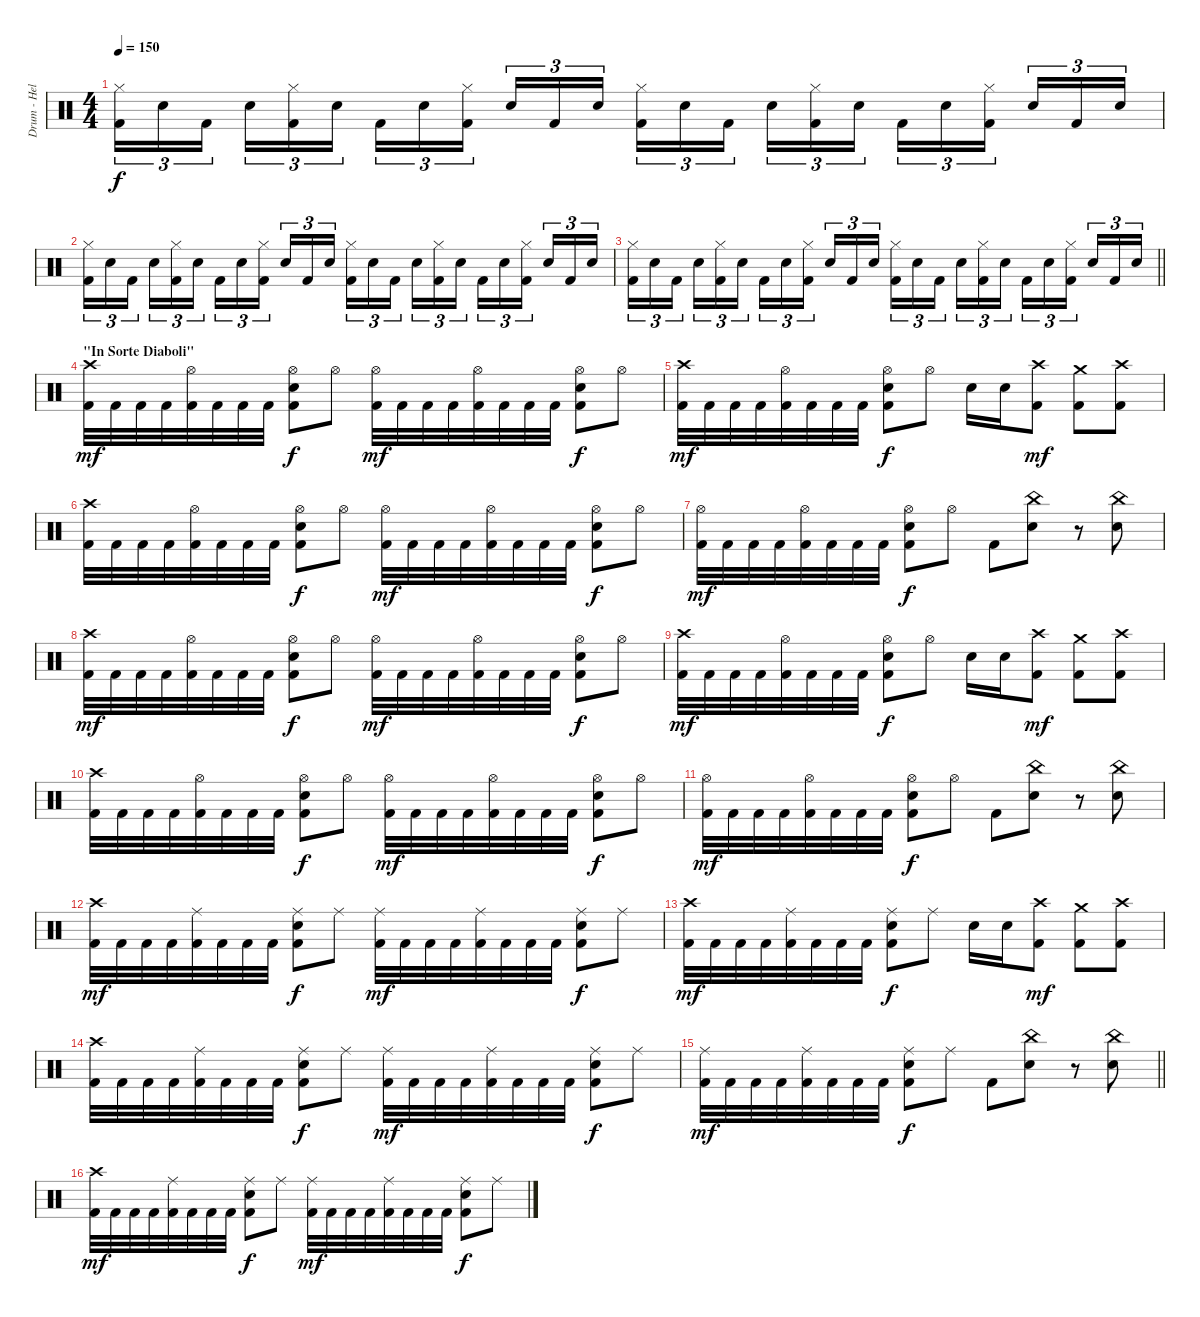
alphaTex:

\track ("Drum - Hellhammer" "Drum - Hel") {instrument percussion}
\staff {score}
\articulation defaults
\ts (4 4)
\tempo 150
\clef neutral
\ks c
("Hi-Hat (closed)" "Kick (hit) 2").16{tu (3 2) dy f} "Electric Snare (hit)".16{tu (3 2)} "Kick (hit) 2".16{tu (3 2)} "Electric Snare (hit)".16{tu (3 2)} ("Hi-Hat (closed)" "Kick (hit) 2").16{tu (3 2)} "Electric Snare (hit)".16{tu (3 2)} "Kick (hit) 2".16{tu (3 2)} "Electric Snare (hit)".16{tu (3 2)} ("Hi-Hat (closed)" "Kick (hit) 2").16{tu (3 2)} "Electric Snare (hit)".16{tu (3 2)} "Kick (hit) 2".16{tu (3 2)} "Electric Snare (hit)".16{tu (3 2)} ("Hi-Hat (closed)" "Kick (hit) 2").16{tu (3 2)} "Electric Snare (hit)".16{tu (3 2)} "Kick (hit) 2".16{tu (3 2)} "Electric Snare (hit)".16{tu (3 2)} ("Hi-Hat (closed)" "Kick (hit) 2").16{tu (3 2)} "Electric Snare (hit)".16{tu (3 2)} "Kick (hit) 2".16{tu (3 2)} "Electric Snare (hit)".16{tu (3 2)} ("Hi-Hat (closed)" "Kick (hit) 2").16{tu (3 2)} "Electric Snare (hit)".16{tu (3 2)} "Kick (hit) 2".16{tu (3 2)} "Electric Snare (hit)".16{tu (3 2)} |
("Hi-Hat (closed)" "Kick (hit) 2").16{tu (3 2)} "Electric Snare (hit)".16{tu (3 2)} "Kick (hit) 2".16{tu (3 2)} "Electric Snare (hit)".16{tu (3 2)} ("Hi-Hat (closed)" "Kick (hit) 2").16{tu (3 2)} "Electric Snare (hit)".16{tu (3 2)} "Kick (hit) 2".16{tu (3 2)} "Electric Snare (hit)".16{tu (3 2)} ("Hi-Hat (closed)" "Kick (hit) 2").16{tu (3 2)} "Electric Snare (hit)".16{tu (3 2)} "Kick (hit) 2".16{tu (3 2)} "Electric Snare (hit)".16{tu (3 2)} ("Hi-Hat (closed)" "Kick (hit) 2").16{tu (3 2)} "Electric Snare (hit)".16{tu (3 2)} "Kick (hit) 2".16{tu (3 2)} "Electric Snare (hit)".16{tu (3 2)} ("Hi-Hat (closed)" "Kick (hit) 2").16{tu (3 2)} "Electric Snare (hit)".16{tu (3 2)} "Kick (hit) 2".16{tu (3 2)} "Electric Snare (hit)".16{tu (3 2)} ("Hi-Hat (closed)" "Kick (hit) 2").16{tu (3 2)} "Electric Snare (hit)".16{tu (3 2)} "Kick (hit) 2".16{tu (3 2)} "Electric Snare (hit)".16{tu (3 2)} |
\barLineRight lightlight
("Hi-Hat (closed)" "Kick (hit) 2").16{tu (3 2)} "Electric Snare (hit)".16{tu (3 2)} "Kick (hit) 2".16{tu (3 2)} "Electric Snare (hit)".16{tu (3 2)} ("Hi-Hat (closed)" "Kick (hit) 2").16{tu (3 2)} "Electric Snare (hit)".16{tu (3 2)} "Kick (hit) 2".16{tu (3 2)} "Electric Snare (hit)".16{tu (3 2)} ("Hi-Hat (closed)" "Kick (hit) 2").16{tu (3 2)} "Electric Snare (hit)".16{tu (3 2)} "Kick (hit) 2".16{tu (3 2)} "Electric Snare (hit)".16{tu (3 2)} ("Hi-Hat (closed)" "Kick (hit) 2").16{tu (3 2)} "Electric Snare (hit)".16{tu (3 2)} "Kick (hit) 2".16{tu (3 2)} "Electric Snare (hit)".16{tu (3 2)} ("Hi-Hat (closed)" "Kick (hit) 2").16{tu (3 2)} "Electric Snare (hit)".16{tu (3 2)} "Kick (hit) 2".16{tu (3 2)} "Electric Snare (hit)".16{tu (3 2)} ("Hi-Hat (closed)" "Kick (hit) 2").16{tu (3 2)} "Electric Snare (hit)".16{tu (3 2)} "Kick (hit) 2".16{tu (3 2)} "Electric Snare (hit)".16{tu (3 2)} |
\section ("" "\"In Sorte Diaboli\"")
("Crash high (hit)" "Kick (hit) 2").32{dy mf} "Kick (hit) 2".32 "Kick (hit) 2".32 "Kick (hit) 2".32 ("Hi-Hat (open)" "Kick (hit) 2").32 "Kick (hit) 2".32 "Kick (hit) 2".32 "Kick (hit) 2".32 ("Hi-Hat (open)" "Electric Snare (hit)" "Kick (hit) 2").8{dy f} "Hi-Hat (open)".8 ("Hi-Hat (open)" "Kick (hit) 2").32{dy mf} "Kick (hit) 2".32 "Kick (hit) 2".32 "Kick (hit) 2".32 ("Hi-Hat (open)" "Kick (hit) 2").32 "Kick (hit) 2".32 "Kick (hit) 2".32 "Kick (hit) 2".32 ("Hi-Hat (open)" "Electric Snare (hit)" "Kick (hit) 2").8{dy f} "Hi-Hat (open)".8 |
("Crash high (hit)" "Kick (hit) 2").32{dy mf} "Kick (hit) 2".32 "Kick (hit) 2".32 "Kick (hit) 2".32 ("Hi-Hat (open)" "Kick (hit) 2").32 "Kick (hit) 2".32 "Kick (hit) 2".32 "Kick (hit) 2".32 ("Hi-Hat (open)" "Electric Snare (hit)" "Kick (hit) 2").8{dy f} "Hi-Hat (open)".8 "Electric Snare (hit)".16 "Electric Snare (hit)".16 ("Crash high (hit)" "Kick (hit) 2").8{dy mf} ("Crash medium (hit)" "Kick (hit) 2").8 ("Crash high (hit)" "Kick (hit) 2").8 |
("Crash high (hit)" "Kick (hit) 2").32 "Kick (hit) 2".32 "Kick (hit) 2".32 "Kick (hit) 2".32 ("Hi-Hat (open)" "Kick (hit) 2").32 "Kick (hit) 2".32 "Kick (hit) 2".32 "Kick (hit) 2".32 ("Hi-Hat (open)" "Electric Snare (hit)" "Kick (hit) 2").8{dy f} "Hi-Hat (open)".8 ("Hi-Hat (open)" "Kick (hit) 2").32{dy mf} "Kick (hit) 2".32 "Kick (hit) 2".32 "Kick (hit) 2".32 ("Hi-Hat (open)" "Kick (hit) 2").32 "Kick (hit) 2".32 "Kick (hit) 2".32 "Kick (hit) 2".32 ("Hi-Hat (open)" "Electric Snare (hit)" "Kick (hit) 2").8{dy f} "Hi-Hat (open)".8 |
("Hi-Hat (open)" "Kick (hit) 2").32{dy mf} "Kick (hit) 2".32 "Kick (hit) 2".32 "Kick (hit) 2".32 ("Hi-Hat (open)" "Kick (hit) 2").32 "Kick (hit) 2".32 "Kick (hit) 2".32 "Kick (hit) 2".32 ("Hi-Hat (open)" "Electric Snare (hit)" "Kick (hit) 2").8{dy f} "Hi-Hat (open)".8 "Kick (hit) 2".8 ("China (hit)" "Electric Snare (hit)").8 r.8 ("China (hit)" "Electric Snare (hit)").8 |
("Crash high (hit)" "Kick (hit) 2").32{dy mf} "Kick (hit) 2".32 "Kick (hit) 2".32 "Kick (hit) 2".32 ("Hi-Hat (open)" "Kick (hit) 2").32 "Kick (hit) 2".32 "Kick (hit) 2".32 "Kick (hit) 2".32 ("Hi-Hat (open)" "Electric Snare (hit)" "Kick (hit) 2").8{dy f} "Hi-Hat (open)".8 ("Hi-Hat (open)" "Kick (hit) 2").32{dy mf} "Kick (hit) 2".32 "Kick (hit) 2".32 "Kick (hit) 2".32 ("Hi-Hat (open)" "Kick (hit) 2").32 "Kick (hit) 2".32 "Kick (hit) 2".32 "Kick (hit) 2".32 ("Hi-Hat (open)" "Electric Snare (hit)" "Kick (hit) 2").8{dy f} "Hi-Hat (open)".8 |
("Crash high (hit)" "Kick (hit) 2").32{dy mf} "Kick (hit) 2".32 "Kick (hit) 2".32 "Kick (hit) 2".32 ("Hi-Hat (open)" "Kick (hit) 2").32 "Kick (hit) 2".32 "Kick (hit) 2".32 "Kick (hit) 2".32 ("Hi-Hat (open)" "Electric Snare (hit)" "Kick (hit) 2").8{dy f} "Hi-Hat (open)".8 "Electric Snare (hit)".16 "Electric Snare (hit)".16 ("Crash high (hit)" "Kick (hit) 2").8{dy mf} ("Crash medium (hit)" "Kick (hit) 2").8 ("Crash high (hit)" "Kick (hit) 2").8 |
("Crash high (hit)" "Kick (hit) 2").32 "Kick (hit) 2".32 "Kick (hit) 2".32 "Kick (hit) 2".32 ("Hi-Hat (open)" "Kick (hit) 2").32 "Kick (hit) 2".32 "Kick (hit) 2".32 "Kick (hit) 2".32 ("Hi-Hat (open)" "Electric Snare (hit)" "Kick (hit) 2").8{dy f} "Hi-Hat (open)".8 ("Hi-Hat (open)" "Kick (hit) 2").32{dy mf} "Kick (hit) 2".32 "Kick (hit) 2".32 "Kick (hit) 2".32 ("Hi-Hat (open)" "Kick (hit) 2").32 "Kick (hit) 2".32 "Kick (hit) 2".32 "Kick (hit) 2".32 ("Hi-Hat (open)" "Electric Snare (hit)" "Kick (hit) 2").8{dy f} "Hi-Hat (open)".8 |
("Hi-Hat (open)" "Kick (hit) 2").32{dy mf} "Kick (hit) 2".32 "Kick (hit) 2".32 "Kick (hit) 2".32 ("Hi-Hat (open)" "Kick (hit) 2").32 "Kick (hit) 2".32 "Kick (hit) 2".32 "Kick (hit) 2".32 ("Hi-Hat (open)" "Electric Snare (hit)" "Kick (hit) 2").8{dy f} "Hi-Hat (open)".8 "Kick (hit) 2".8 ("China (hit)" "Electric Snare (hit)").8 r.8 ("China (hit)" "Electric Snare (hit)").8 |
("Crash high (hit)" "Kick (hit) 2").32{dy mf} "Kick (hit) 2".32 "Kick (hit) 2".32 "Kick (hit) 2".32 ("Ride (middle)" "Kick (hit) 2").32 "Kick (hit) 2".32 "Kick (hit) 2".32 "Kick (hit) 2".32 ("Ride (middle)" "Electric Snare (hit)" "Kick (hit) 2").8{dy f} "Ride (middle)".8 ("Ride (middle)" "Kick (hit) 2").32{dy mf} "Kick (hit) 2".32 "Kick (hit) 2".32 "Kick (hit) 2".32 ("Ride (middle)" "Kick (hit) 2").32 "Kick (hit) 2".32 "Kick (hit) 2".32 "Kick (hit) 2".32 ("Ride (middle)" "Electric Snare (hit)" "Kick (hit) 2").8{dy f} "Ride (middle)".8 |
("Crash high (hit)" "Kick (hit) 2").32{dy mf} "Kick (hit) 2".32 "Kick (hit) 2".32 "Kick (hit) 2".32 ("Ride (middle)" "Kick (hit) 2").32 "Kick (hit) 2".32 "Kick (hit) 2".32 "Kick (hit) 2".32 ("Ride (middle)" "Electric Snare (hit)" "Kick (hit) 2").8{dy f} "Ride (middle)".8 "Electric Snare (hit)".16 "Electric Snare (hit)".16 ("Crash high (hit)" "Kick (hit) 2").8{dy mf} ("Crash medium (hit)" "Kick (hit) 2").8 ("Crash high (hit)" "Kick (hit) 2").8 |
("Crash high (hit)" "Kick (hit) 2").32 "Kick (hit) 2".32 "Kick (hit) 2".32 "Kick (hit) 2".32 ("Ride (middle)" "Kick (hit) 2").32 "Kick (hit) 2".32 "Kick (hit) 2".32 "Kick (hit) 2".32 ("Ride (middle)" "Electric Snare (hit)" "Kick (hit) 2").8{dy f} "Ride (middle)".8 ("Ride (middle)" "Kick (hit) 2").32{dy mf} "Kick (hit) 2".32 "Kick (hit) 2".32 "Kick (hit) 2".32 ("Ride (middle)" "Kick (hit) 2").32 "Kick (hit) 2".32 "Kick (hit) 2".32 "Kick (hit) 2".32 ("Ride (middle)" "Electric Snare (hit)" "Kick (hit) 2").8{dy f} "Ride (middle)".8 |
\barLineRight lightlight
("Ride (middle)" "Kick (hit) 2").32{dy mf} "Kick (hit) 2".32 "Kick (hit) 2".32 "Kick (hit) 2".32 ("Ride (middle)" "Kick (hit) 2").32 "Kick (hit) 2".32 "Kick (hit) 2".32 "Kick (hit) 2".32 ("Ride (middle)" "Electric Snare (hit)" "Kick (hit) 2").8{dy f} "Ride (middle)".8 "Kick (hit) 2".8 ("China (hit)" "Electric Snare (hit)").8 r.8 ("China (hit)" "Electric Snare (hit)").8 |
("Crash high (hit)" "Kick (hit) 2").32{dy mf} "Kick (hit) 2".32 "Kick (hit) 2".32 "Kick (hit) 2".32 ("Ride (middle)" "Kick (hit) 2").32 "Kick (hit) 2".32 "Kick (hit) 2".32 "Kick (hit) 2".32 ("Ride (middle)" "Electric Snare (hit)" "Kick (hit) 2").8{dy f} "Ride (middle)".8 ("Ride (middle)" "Kick (hit) 2").32{dy mf} "Kick (hit) 2".32 "Kick (hit) 2".32 "Kick (hit) 2".32 ("Ride (middle)" "Kick (hit) 2").32 "Kick (hit) 2".32 "Kick (hit) 2".32 "Kick (hit) 2".32 ("Ride (middle)" "Electric Snare (hit)" "Kick (hit) 2").8{dy f} "Ride (middle)".8
